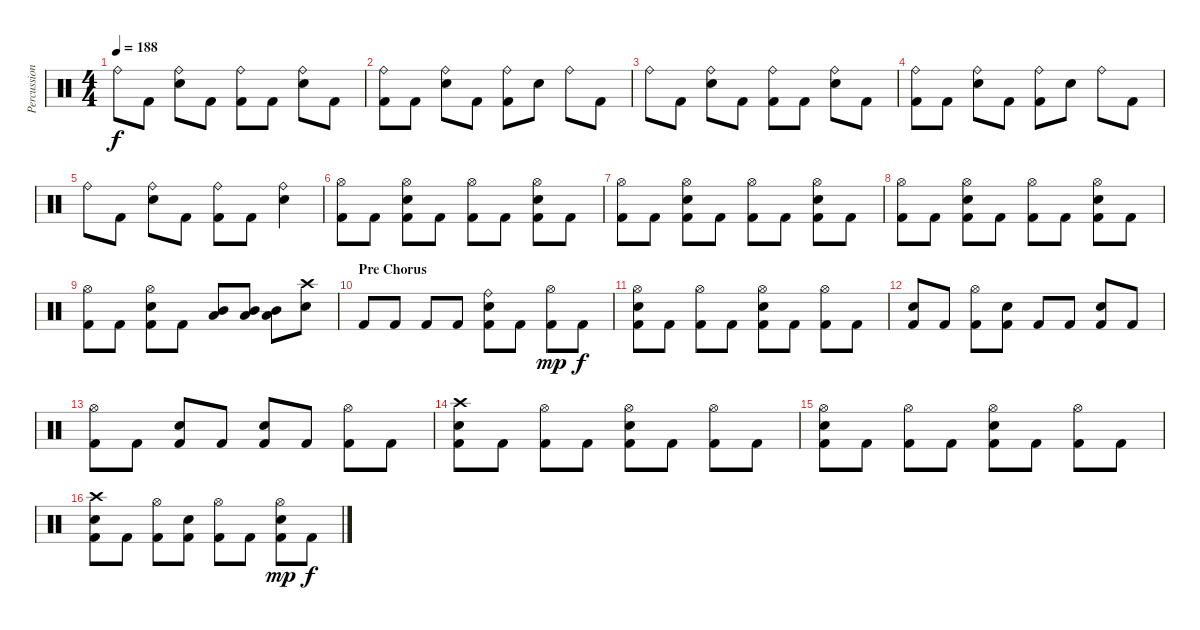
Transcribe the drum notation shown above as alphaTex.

\track ("Percussions" "Percussion") {instrument percussion}
\staff {score}
\articulation defaults
\ts (4 4)
\tempo 188
\clef neutral
\ks c "Ride (bell)".8{dy f} "Kick (hit) 2".8
("Ride (bell)" "Snare (hit) 2").8 "Kick (hit) 2".8 ("Ride (bell)" "Kick (hit) 2").8 "Kick (hit) 2".8 ("Ride (bell)" "Snare (hit) 2").8 "Kick (hit) 2".8 |
("Ride (bell)" "Kick (hit) 2").8 "Kick (hit) 2".8 ("Ride (bell)" "Snare (hit) 2").8 "Kick (hit) 2".8 ("Ride (bell)" "Kick (hit) 2").8 "Snare (hit) 2".8 "Ride (bell)".8 "Kick (hit) 2".8 |
"Ride (bell)".8 "Kick (hit) 2".8 ("Ride (bell)" "Snare (hit) 2").8 "Kick (hit) 2".8 ("Ride (bell)" "Kick (hit) 2").8 "Kick (hit) 2".8 ("Ride (bell)" "Snare (hit) 2").8 "Kick (hit) 2".8 |
("Ride (bell)" "Kick (hit) 2").8 "Kick (hit) 2".8 ("Ride (bell)" "Snare (hit) 2").8 "Kick (hit) 2".8 ("Ride (bell)" "Kick (hit) 2").8 "Snare (hit) 2".8 "Ride (bell)".8 "Kick (hit) 2".8 |
"Ride (bell)".8 "Kick (hit) 2".8 ("Ride (bell)" "Snare (hit) 2").8 "Kick (hit) 2".8 ("Ride (bell)" "Kick (hit) 2").8 "Kick (hit) 2".8 ("Ride (bell)" "Snare (hit) 2").4 |
("Hi-Hat (open)" "Kick (hit) 2").8 "Kick (hit) 2".8 ("Hi-Hat (open)" "Snare (hit) 2" "Kick (hit) 2").8 "Kick (hit) 2".8 ("Hi-Hat (open)" "Kick (hit) 2").8 "Kick (hit) 2".8 ("Hi-Hat (open)" "Snare (hit) 2" "Kick (hit) 2").8 "Kick (hit) 2".8 |
("Hi-Hat (open)" "Kick (hit) 2").8 "Kick (hit) 2".8 ("Hi-Hat (open)" "Snare (hit) 2" "Kick (hit) 2").8 "Kick (hit) 2".8 ("Hi-Hat (open)" "Kick (hit) 2").8 "Kick (hit) 2".8 ("Hi-Hat (open)" "Snare (hit) 2" "Kick (hit) 2").8 "Kick (hit) 2".8 |
("Hi-Hat (open)" "Kick (hit) 2").8 "Kick (hit) 2".8 ("Hi-Hat (open)" "Snare (hit) 2" "Kick (hit) 2").8 "Kick (hit) 2".8 ("Hi-Hat (open)" "Kick (hit) 2").8 "Kick (hit) 2".8 ("Hi-Hat (open)" "Snare (hit) 2" "Kick (hit) 2").8 "Kick (hit) 2".8 |
("Hi-Hat (open)" "Kick (hit) 2").8 "Kick (hit) 2".8 ("Hi-Hat (open)" "Snare (hit) 2" "Kick (hit) 2").8 "Kick (hit) 2".8 ("Mid Tom (hit)" "Low Tom (hit)").8 ("Mid Tom (hit)" "Low Tom (hit)").8 ("Mid Tom (hit)" "Low Tom (hit)").8 ("Crash high (hit)" "Snare (hit) 2").8 |
\section ("" "Pre Chorus")
"Kick (hit) 2".8 "Kick (hit) 2".8 "Kick (hit) 2".8 "Kick (hit) 2".8 ("Ride (bell)" "Snare (hit) 2" "Kick (hit) 2").8 "Kick (hit) 2".8 ("Hi-Hat (open)" "Kick (hit) 2").8{dy mp} "Kick (hit) 2".8{dy f} |
("Hi-Hat (open)" "Snare (hit) 2" "Kick (hit) 2").8 "Kick (hit) 2".8 ("Hi-Hat (open)" "Kick (hit) 2").8 "Kick (hit) 2".8 ("Hi-Hat (open)" "Snare (hit) 2" "Kick (hit) 2").8 "Kick (hit) 2".8 ("Hi-Hat (open)" "Kick (hit) 2").8 "Kick (hit) 2".8 |
("Snare (hit) 2" "Kick (hit) 2").8 "Kick (hit) 2".8 ("Hi-Hat (open)" "Kick (hit) 2").8 ("Snare (hit) 2" "Kick (hit) 2").8 "Kick (hit) 2".8 "Kick (hit) 2".8 ("Snare (hit) 2" "Kick (hit) 2").8 "Kick (hit) 2".8 |
("Hi-Hat (open)" "Kick (hit) 2").8 "Kick (hit) 2".8 ("Snare (hit) 2" "Kick (hit) 2").8 "Kick (hit) 2".8 ("Snare (hit) 2" "Kick (hit) 2").8 "Kick (hit) 2".8 ("Hi-Hat (open)" "Kick (hit) 2").8 "Kick (hit) 2".8 |
("Crash high (hit)" "Snare (hit) 2" "Kick (hit) 2").8 "Kick (hit) 2".8 ("Hi-Hat (open)" "Kick (hit) 2").8 "Kick (hit) 2".8 ("Hi-Hat (open)" "Snare (hit) 2" "Kick (hit) 2").8 "Kick (hit) 2".8 ("Hi-Hat (open)" "Kick (hit) 2").8 "Kick (hit) 2".8 |
("Hi-Hat (open)" "Snare (hit) 2" "Kick (hit) 2").8 "Kick (hit) 2".8 ("Hi-Hat (open)" "Kick (hit) 2").8 "Kick (hit) 2".8 ("Hi-Hat (open)" "Snare (hit) 2" "Kick (hit) 2").8 "Kick (hit) 2".8 ("Hi-Hat (open)" "Kick (hit) 2").8 "Kick (hit) 2".8 |
("Crash high (hit)" "Snare (hit) 2" "Kick (hit) 2").8 "Kick (hit) 2".8 ("Hi-Hat (open)" "Kick (hit) 2").8 ("Snare (hit) 2" "Kick (hit) 2").8 ("Hi-Hat (open)" "Kick (hit) 2").8 "Kick (hit) 2".8 ("Hi-Hat (open)" "Snare (hit) 2" "Kick (hit) 2").8{dy mp} "Kick (hit) 2".8{dy f}
